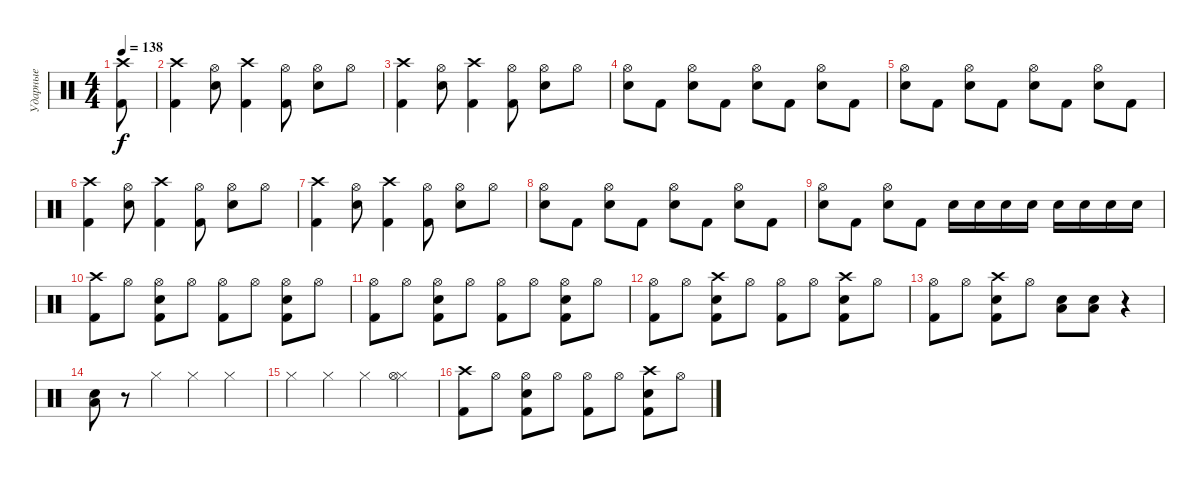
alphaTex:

\track ("Ударные" "Ударные") {instrument percussion}
\staff {score}
\articulation defaults
\ts (4 4)
\tempo 138
\clef neutral
\ks c
("Crash high (hit)" "Kick (hit) 2").8{dy f} |
("Crash high (hit)" "Kick (hit) 2").4 ("Hi-Hat (open)" "Electric Snare (hit)").8 ("Crash high (hit)" "Kick (hit) 2").4 ("Hi-Hat (open)" "Kick (hit) 2").8 ("Hi-Hat (open)" "Electric Snare (hit)").8 "Hi-Hat (open)".8 |
("Crash high (hit)" "Kick (hit) 2").4 ("Hi-Hat (open)" "Electric Snare (hit)").8 ("Crash high (hit)" "Kick (hit) 2").4 ("Hi-Hat (open)" "Kick (hit) 2").8 ("Hi-Hat (open)" "Electric Snare (hit)").8 "Hi-Hat (open)".8 |
("Hi-Hat (open)" "Electric Snare (hit)").8 "Kick (hit) 2".8 ("Hi-Hat (open)" "Electric Snare (hit)").8 "Kick (hit) 2".8 ("Hi-Hat (open)" "Electric Snare (hit)").8 "Kick (hit) 2".8 ("Hi-Hat (open)" "Electric Snare (hit)").8 "Kick (hit) 2".8 |
("Hi-Hat (open)" "Electric Snare (hit)").8 "Kick (hit) 2".8 ("Hi-Hat (open)" "Electric Snare (hit)").8 "Kick (hit) 2".8 ("Hi-Hat (open)" "Electric Snare (hit)").8 "Kick (hit) 2".8 ("Hi-Hat (open)" "Electric Snare (hit)").8 "Kick (hit) 2".8 |
("Crash high (hit)" "Kick (hit) 2").4 ("Hi-Hat (open)" "Electric Snare (hit)").8 ("Crash high (hit)" "Kick (hit) 2").4 ("Hi-Hat (open)" "Kick (hit) 2").8 ("Hi-Hat (open)" "Electric Snare (hit)").8 "Hi-Hat (open)".8 |
("Crash high (hit)" "Kick (hit) 2").4 ("Hi-Hat (open)" "Electric Snare (hit)").8 ("Crash high (hit)" "Kick (hit) 2").4 ("Hi-Hat (open)" "Kick (hit) 2").8 ("Hi-Hat (open)" "Electric Snare (hit)").8 "Hi-Hat (open)".8 |
("Hi-Hat (open)" "Electric Snare (hit)").8 "Kick (hit) 2".8 ("Hi-Hat (open)" "Electric Snare (hit)").8 "Kick (hit) 2".8 ("Hi-Hat (open)" "Electric Snare (hit)").8 "Kick (hit) 2".8 ("Hi-Hat (open)" "Electric Snare (hit)").8 "Kick (hit) 2".8 |
("Hi-Hat (open)" "Electric Snare (hit)").8 "Kick (hit) 2".8 ("Hi-Hat (open)" "Electric Snare (hit)").8 "Kick (hit) 2".8 "Electric Snare (hit)".16 "Electric Snare (hit)".16 "Electric Snare (hit)".16 "Electric Snare (hit)".16 "Electric Snare (hit)".16 "Electric Snare (hit)".16 "Electric Snare (hit)".16 "Electric Snare (hit)".16 |
("Crash high (hit)" "Kick (hit) 2").8 "Hi-Hat (open)".8 ("Hi-Hat (open)" "Electric Snare (hit)" "Kick (hit) 2").8 "Hi-Hat (open)".8 ("Hi-Hat (open)" "Kick (hit) 2").8 "Hi-Hat (open)".8 ("Hi-Hat (open)" "Electric Snare (hit)" "Kick (hit) 2").8 "Hi-Hat (open)".8 |
("Hi-Hat (open)" "Kick (hit) 2").8 "Hi-Hat (open)".8 ("Hi-Hat (open)" "Electric Snare (hit)" "Kick (hit) 2").8 "Hi-Hat (open)".8 ("Hi-Hat (open)" "Kick (hit) 2").8 "Hi-Hat (open)".8 ("Hi-Hat (open)" "Electric Snare (hit)" "Kick (hit) 2").8 "Hi-Hat (open)".8 |
("Hi-Hat (open)" "Kick (hit) 2").8 "Hi-Hat (open)".8 ("Crash high (hit)" "Electric Snare (hit)" "Kick (hit) 2").8 "Hi-Hat (open)".8 ("Hi-Hat (open)" "Kick (hit) 2").8 "Hi-Hat (open)".8 ("Crash high (hit)" "Electric Snare (hit)" "Kick (hit) 2").8 "Hi-Hat (open)".8 |
("Hi-Hat (open)" "Kick (hit) 2").8 "Hi-Hat (open)".8 ("Crash high (hit)" "Electric Snare (hit)" "Kick (hit) 2").8 "Hi-Hat (open)".8 ("Low Tom (hit)" "Electric Snare (hit)").8 ("Low Tom (hit)" "Electric Snare (hit)").8 r.4 |
("Low Tom (hit)" "Electric Snare (hit)").8 r.8 "Hi-Hat (closed)".4 "Hi-Hat (closed)".4 "Hi-Hat (closed)".4 |
"Hi-Hat (closed)".4 "Hi-Hat (closed)".4 "Hi-Hat (closed)".4 ("Hi-Hat (closed)" "Hi-Hat (open)").4 |
("Crash high (hit)" "Kick (hit) 2").8 "Hi-Hat (open)".8 ("Hi-Hat (open)" "Electric Snare (hit)" "Kick (hit) 2").8 "Hi-Hat (open)".8 ("Hi-Hat (open)" "Kick (hit) 2").8 "Hi-Hat (open)".8 ("Crash high (hit)" "Electric Snare (hit)" "Kick (hit) 2").8 "Hi-Hat (open)".8
